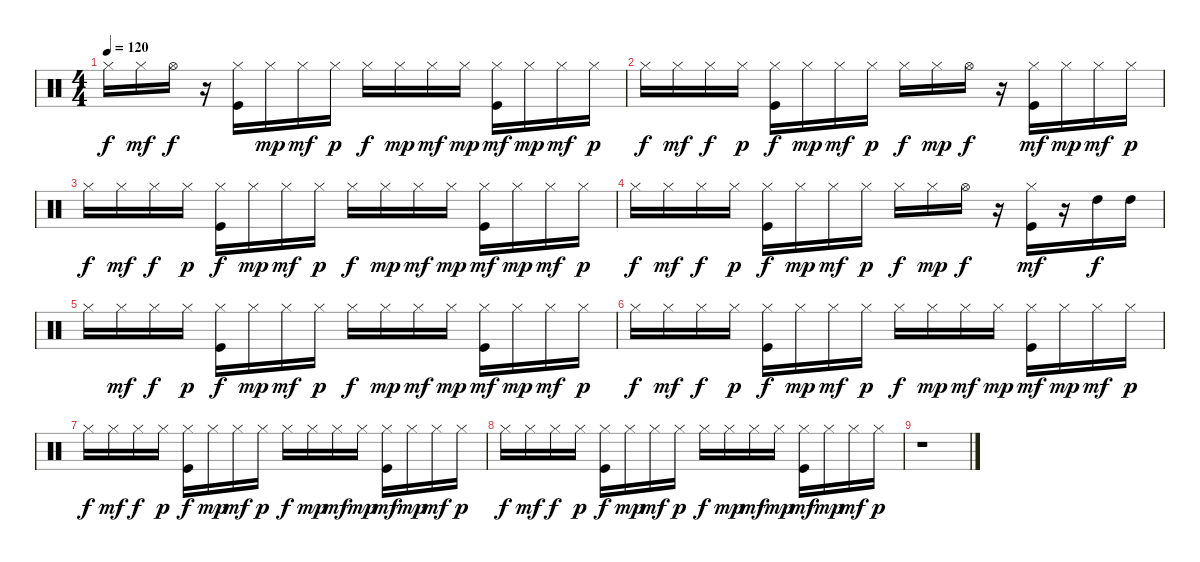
\track "" {instrument percussion}
\staff {score}
\articulation defaults
\ts (4 4)
\tempo 120
\clef neutral
\ks c "Hi-Hat (closed)".16{dy f} "Hi-Hat (closed)".16{dy mf} "Hi-Hat (open)".16{dy f}
r.16 ("Kick (hit)" "Hi-Hat (closed)").16 "Hi-Hat (closed)".16{dy mp} "Hi-Hat (closed)".16{dy mf} "Hi-Hat (closed)".16{dy p} "Hi-Hat (closed)".16{dy f} "Hi-Hat (closed)".16{dy mp} "Hi-Hat (closed)".16{dy mf} "Hi-Hat (closed)".16{dy mp} ("Kick (hit)" "Hi-Hat (closed)").16{dy mf} "Hi-Hat (closed)".16{dy mp} "Hi-Hat (closed)".16{dy mf} "Hi-Hat (closed)".16{dy p} |
"Hi-Hat (closed)".16{dy f} "Hi-Hat (closed)".16{dy mf} "Hi-Hat (closed)".16{dy f} "Hi-Hat (closed)".16{dy p} ("Kick (hit)" "Hi-Hat (closed)").16{dy f} "Hi-Hat (closed)".16{dy mp} "Hi-Hat (closed)".16{dy mf} "Hi-Hat (closed)".16{dy p} "Hi-Hat (closed)".16{dy f} "Hi-Hat (closed)".16{dy mp} "Hi-Hat (open)".16{dy f} r.16 ("Kick (hit)" "Hi-Hat (closed)").16{dy mf} "Hi-Hat (closed)".16{dy mp} "Hi-Hat (closed)".16{dy mf} "Hi-Hat (closed)".16{dy p} |
"Hi-Hat (closed)".16{dy f} "Hi-Hat (closed)".16{dy mf} "Hi-Hat (closed)".16{dy f} "Hi-Hat (closed)".16{dy p} ("Kick (hit)" "Hi-Hat (closed)").16{dy f} "Hi-Hat (closed)".16{dy mp} "Hi-Hat (closed)".16{dy mf} "Hi-Hat (closed)".16{dy p} "Hi-Hat (closed)".16{dy f} "Hi-Hat (closed)".16{dy mp} "Hi-Hat (closed)".16{dy mf} "Hi-Hat (closed)".16{dy mp} ("Kick (hit)" "Hi-Hat (closed)").16{dy mf} "Hi-Hat (closed)".16{dy mp} "Hi-Hat (closed)".16{dy mf} "Hi-Hat (closed)".16{dy p} |
"Hi-Hat (closed)".16{dy f} "Hi-Hat (closed)".16{dy mf} "Hi-Hat (closed)".16{dy f} "Hi-Hat (closed)".16{dy p} ("Kick (hit)" "Hi-Hat (closed)").16{dy f} "Hi-Hat (closed)".16{dy mp} "Hi-Hat (closed)".16{dy mf} "Hi-Hat (closed)".16{dy p} "Hi-Hat (closed)".16{dy f} "Hi-Hat (closed)".16{dy mp} "Hi-Hat (open)".16{dy f} r.16 ("Kick (hit)" "Hi-Hat (closed)").16{dy mf} r.16 "High Tom (hit)".16{dy f} "High Tom (hit)".16 |
"Hi-Hat (closed)".16 "Hi-Hat (closed)".16{dy mf} "Hi-Hat (closed)".16{dy f} "Hi-Hat (closed)".16{dy p} ("Kick (hit)" "Hi-Hat (closed)").16{dy f} "Hi-Hat (closed)".16{dy mp} "Hi-Hat (closed)".16{dy mf} "Hi-Hat (closed)".16{dy p} "Hi-Hat (closed)".16{dy f} "Hi-Hat (closed)".16{dy mp} "Hi-Hat (closed)".16{dy mf} "Hi-Hat (closed)".16{dy mp} ("Kick (hit)" "Hi-Hat (closed)").16{dy mf} "Hi-Hat (closed)".16{dy mp} "Hi-Hat (closed)".16{dy mf} "Hi-Hat (closed)".16{dy p} |
"Hi-Hat (closed)".16{dy f} "Hi-Hat (closed)".16{dy mf} "Hi-Hat (closed)".16{dy f} "Hi-Hat (closed)".16{dy p} ("Kick (hit)" "Hi-Hat (closed)").16{dy f} "Hi-Hat (closed)".16{dy mp} "Hi-Hat (closed)".16{dy mf} "Hi-Hat (closed)".16{dy p} "Hi-Hat (closed)".16{dy f} "Hi-Hat (closed)".16{dy mp} "Hi-Hat (closed)".16{dy mf} "Hi-Hat (closed)".16{dy mp} ("Kick (hit)" "Hi-Hat (closed)").16{dy mf} "Hi-Hat (closed)".16{dy mp} "Hi-Hat (closed)".16{dy mf} "Hi-Hat (closed)".16{dy p} |
"Hi-Hat (closed)".16{dy f} "Hi-Hat (closed)".16{dy mf} "Hi-Hat (closed)".16{dy f} "Hi-Hat (closed)".16{dy p} ("Kick (hit)" "Hi-Hat (closed)").16{dy f} "Hi-Hat (closed)".16{dy mp} "Hi-Hat (closed)".16{dy mf} "Hi-Hat (closed)".16{dy p} "Hi-Hat (closed)".16{dy f} "Hi-Hat (closed)".16{dy mp} "Hi-Hat (closed)".16{dy mf} "Hi-Hat (closed)".16{dy mp} ("Kick (hit)" "Hi-Hat (closed)").16{dy mf} "Hi-Hat (closed)".16{dy mp} "Hi-Hat (closed)".16{dy mf} "Hi-Hat (closed)".16{dy p} |
"Hi-Hat (closed)".16{dy f} "Hi-Hat (closed)".16{dy mf} "Hi-Hat (closed)".16{dy f} "Hi-Hat (closed)".16{dy p} ("Kick (hit)" "Hi-Hat (closed)").16{dy f} "Hi-Hat (closed)".16{dy mp} "Hi-Hat (closed)".16{dy mf} "Hi-Hat (closed)".16{dy p} "Hi-Hat (closed)".16{dy f} "Hi-Hat (closed)".16{dy mp} "Hi-Hat (closed)".16{dy mf} "Hi-Hat (closed)".16{dy mp} ("Kick (hit)" "Hi-Hat (closed)").16{dy mf} "Hi-Hat (closed)".16{dy mp} "Hi-Hat (closed)".16{dy mf} "Hi-Hat (closed)".16{dy p} |
r.1
